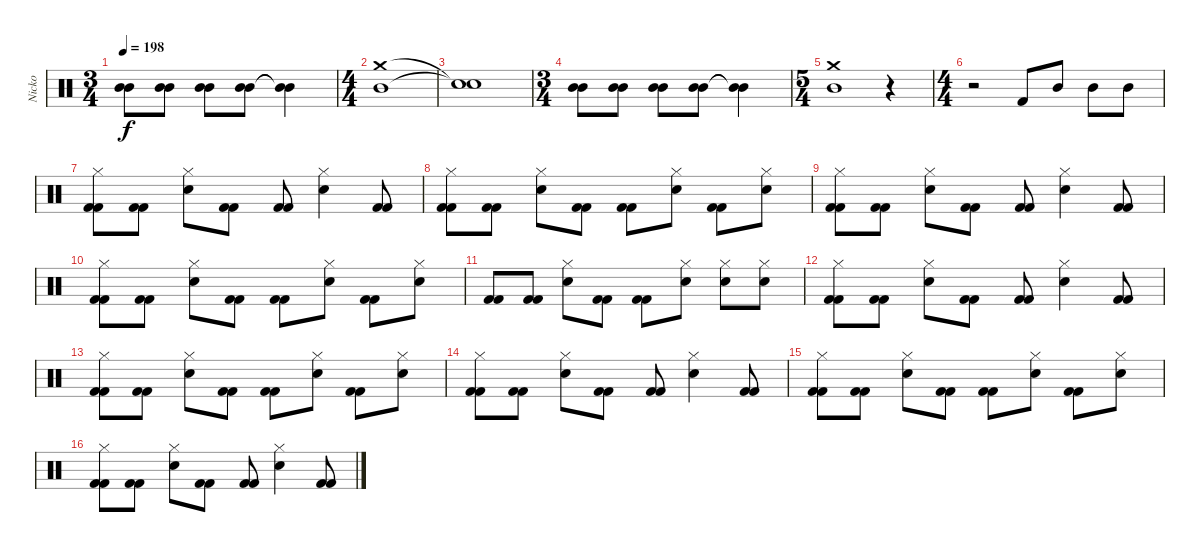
\track ("Nicko" "Nicko") {instrument percussion}
\staff {score}
\articulation defaults
\ts (3 4)
\tempo 198
\clef neutral
\ks c
("Mid Tom (hit)" "Mid Tom (hit)").8{dy f} ("Mid Tom (hit)" "Mid Tom (hit)").8 ("Mid Tom (hit)" "Mid Tom (hit)").8 ("Mid Tom (hit)" "Mid Tom (hit)").8 ("Mid Tom (hit)"{t} "Mid Tom (hit)"{t}).4 |
\ts (4 4)
("Crash medium (hit)" "Mid Tom (hit)").1 |
("Snare (hit)"{t} "Snare (hit)"{t}).1 |
\ts (3 4)
("Mid Tom (hit)" "Mid Tom (hit)").8 ("Mid Tom (hit)" "Mid Tom (hit)").8 ("Mid Tom (hit)" "Mid Tom (hit)").8 ("Mid Tom (hit)" "Mid Tom (hit)").8 ("Mid Tom (hit)"{t} "Mid Tom (hit)"{t}).4 |
\ts (5 4)
("Mid Tom (hit)" "Crash medium (hit)").1 r.4 |
\ts (4 4)
r.2 "Kick (hit) 2".8 "Mid Tom (hit)".8 "Mid Tom (hit)".8 "Mid Tom (hit)".8 |
("Hi-Hat (closed)" "Kick (hit) 2" "Kick (hit) 2").8 ("Kick (hit) 2" "Kick (hit) 2").8 ("Hi-Hat (closed)" "Electric Snare (hit)").8 ("Kick (hit) 2" "Kick (hit) 2").8 ("Kick (hit) 2" "Kick (hit) 2").8 ("Hi-Hat (closed)" "Electric Snare (hit)").4 ("Kick (hit) 2" "Kick (hit) 2").8 |
("Hi-Hat (closed)" "Kick (hit) 2" "Kick (hit) 2").8 ("Kick (hit) 2" "Kick (hit) 2").8 ("Hi-Hat (closed)" "Electric Snare (hit)").8 ("Kick (hit) 2" "Kick (hit) 2").8 ("Kick (hit) 2" "Kick (hit) 2").8 ("Hi-Hat (closed)" "Electric Snare (hit)").8 ("Kick (hit) 2" "Kick (hit) 2").8 ("Hi-Hat (closed)" "Electric Snare (hit)").8 |
("Hi-Hat (closed)" "Kick (hit) 2" "Kick (hit) 2").8 ("Kick (hit) 2" "Kick (hit) 2").8 ("Hi-Hat (closed)" "Electric Snare (hit)").8 ("Kick (hit) 2" "Kick (hit) 2").8 ("Kick (hit) 2" "Kick (hit) 2").8 ("Hi-Hat (closed)" "Electric Snare (hit)").4 ("Kick (hit) 2" "Kick (hit) 2").8 |
("Hi-Hat (closed)" "Kick (hit) 2" "Kick (hit) 2").8 ("Kick (hit) 2" "Kick (hit) 2").8 ("Hi-Hat (closed)" "Electric Snare (hit)").8 ("Kick (hit) 2" "Kick (hit) 2").8 ("Kick (hit) 2" "Kick (hit) 2").8 ("Hi-Hat (closed)" "Electric Snare (hit)").8 ("Kick (hit) 2" "Kick (hit) 2").8 ("Hi-Hat (closed)" "Electric Snare (hit)").8 |
("Kick (hit) 2" "Kick (hit) 2").8 ("Kick (hit) 2" "Kick (hit) 2").8 ("Hi-Hat (closed)" "Electric Snare (hit)").8 ("Kick (hit) 2" "Kick (hit) 2").8 ("Kick (hit) 2" "Kick (hit) 2").8 ("Hi-Hat (closed)" "Electric Snare (hit)").8 ("Hi-Hat (closed)" "Electric Snare (hit)").8 ("Hi-Hat (closed)" "Electric Snare (hit)").8 |
("Hi-Hat (closed)" "Kick (hit) 2" "Kick (hit) 2").8 ("Kick (hit) 2" "Kick (hit) 2").8 ("Hi-Hat (closed)" "Electric Snare (hit)").8 ("Kick (hit) 2" "Kick (hit) 2").8 ("Kick (hit) 2" "Kick (hit) 2").8 ("Hi-Hat (closed)" "Electric Snare (hit)").4 ("Kick (hit) 2" "Kick (hit) 2").8 |
("Hi-Hat (closed)" "Kick (hit) 2" "Kick (hit) 2").8 ("Kick (hit) 2" "Kick (hit) 2").8 ("Hi-Hat (closed)" "Electric Snare (hit)").8 ("Kick (hit) 2" "Kick (hit) 2").8 ("Kick (hit) 2" "Kick (hit) 2").8 ("Hi-Hat (closed)" "Electric Snare (hit)").8 ("Kick (hit) 2" "Kick (hit) 2").8 ("Hi-Hat (closed)" "Electric Snare (hit)").8 |
("Hi-Hat (closed)" "Kick (hit) 2" "Kick (hit) 2").8 ("Kick (hit) 2" "Kick (hit) 2").8 ("Hi-Hat (closed)" "Electric Snare (hit)").8 ("Kick (hit) 2" "Kick (hit) 2").8 ("Kick (hit) 2" "Kick (hit) 2").8 ("Hi-Hat (closed)" "Electric Snare (hit)").4 ("Kick (hit) 2" "Kick (hit) 2").8 |
("Hi-Hat (closed)" "Kick (hit) 2" "Kick (hit) 2").8 ("Kick (hit) 2" "Kick (hit) 2").8 ("Hi-Hat (closed)" "Electric Snare (hit)").8 ("Kick (hit) 2" "Kick (hit) 2").8 ("Kick (hit) 2" "Kick (hit) 2").8 ("Hi-Hat (closed)" "Electric Snare (hit)").8 ("Kick (hit) 2" "Kick (hit) 2").8 ("Hi-Hat (closed)" "Electric Snare (hit)").8 |
("Hi-Hat (closed)" "Kick (hit) 2" "Kick (hit) 2").8 ("Kick (hit) 2" "Kick (hit) 2").8 ("Hi-Hat (closed)" "Electric Snare (hit)").8 ("Kick (hit) 2" "Kick (hit) 2").8 ("Kick (hit) 2" "Kick (hit) 2").8 ("Hi-Hat (closed)" "Electric Snare (hit)").4 ("Kick (hit) 2" "Kick (hit) 2").8
